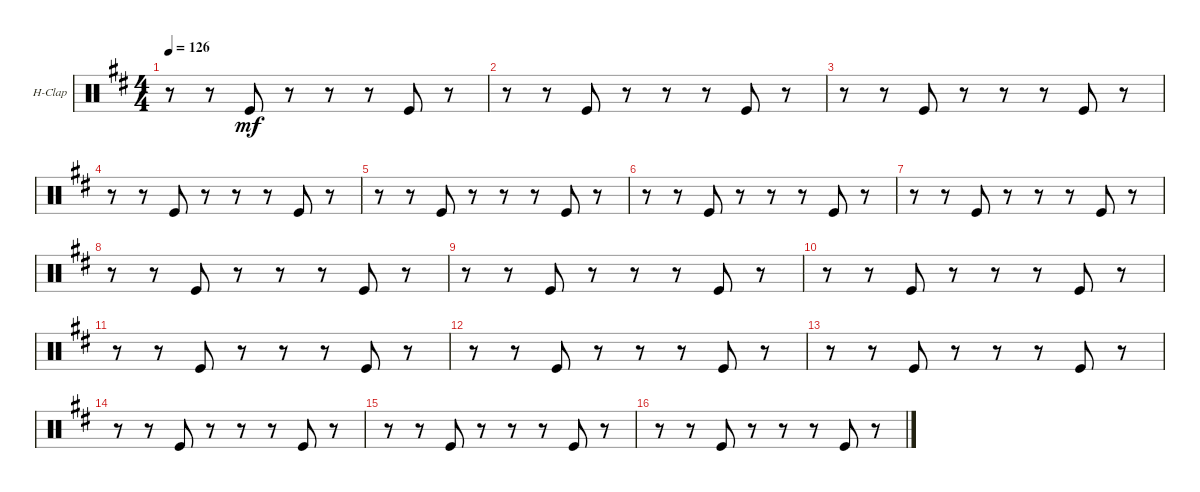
\bracketExtendMode groupsimilarinstruments
\firstSystemTrackNameOrientation horizontal
\otherSystemsTrackNameOrientation horizontal
\track ("Hand Clap" "H-Clap") {instrument percussion}
\staff {score}
\articulation defaults
\ts (4 4)
\tempo 126
\clef neutral
\scale
0.333333
\ks d
r.8{dy mf} r.8 "Kick (hit)".8 r.8 r.8 r.8 "Kick (hit)".8 r.8 |
\scale
0.333333 r.8 r.8 "Kick (hit)".8 r.8 r.8 r.8 "Kick (hit)".8 r.8 |
\scale
0.333333 r.8 r.8 "Kick (hit)".8 r.8 r.8 r.8 "Kick (hit)".8 r.8 |
\scale
0.333333 r.8 r.8 "Kick (hit)".8 r.8 r.8 r.8 "Kick (hit)".8 r.8 |
\scale
0.333333 r.8 r.8 "Kick (hit)".8 r.8 r.8 r.8 "Kick (hit)".8 r.8 |
\scale
0.333333 r.8 r.8 "Kick (hit)".8 r.8 r.8 r.8 "Kick (hit)".8 r.8 |
\scale
0.394843
\scale
0.333333 r.8 r.8 "Kick (hit)".8 r.8 r.8 r.8 "Kick (hit)".8 r.8 |
\scale
0.335324
\scale
0.333333 r.8 r.8 "Kick (hit)".8 r.8 r.8 r.8 "Kick (hit)".8 r.8 |
\scale
0.270011
\scale
0.333333 r.8 r.8 "Kick (hit)".8 r.8 r.8 r.8 "Kick (hit)".8 r.8 |
\scale
0.333333 r.8 r.8 "Kick (hit)".8 r.8 r.8 r.8 "Kick (hit)".8 r.8 |
\scale
0.333333 r.8 r.8 "Kick (hit)".8 r.8 r.8 r.8 "Kick (hit)".8 r.8 |
\scale
0.416216
\scale
0.333333 r.8 r.8 "Kick (hit)".8 r.8 r.8 r.8 "Kick (hit)".8 r.8 |
\scale
0.274797
\scale
0.333333 r.8 r.8 "Kick (hit)".8 r.8 r.8 r.8 "Kick (hit)".8 r.8 |
\scale
0.308826
\scale
0.333333 r.8 r.8 "Kick (hit)".8 r.8 r.8 r.8 "Kick (hit)".8 r.8 |
\scale
0.333333 r.8 r.8 "Kick (hit)".8 r.8 r.8 r.8 "Kick (hit)".8 r.8 |
\scale
0.333333 r.8 r.8 "Kick (hit)".8 r.8 r.8 r.8 "Kick (hit)".8 r.8
